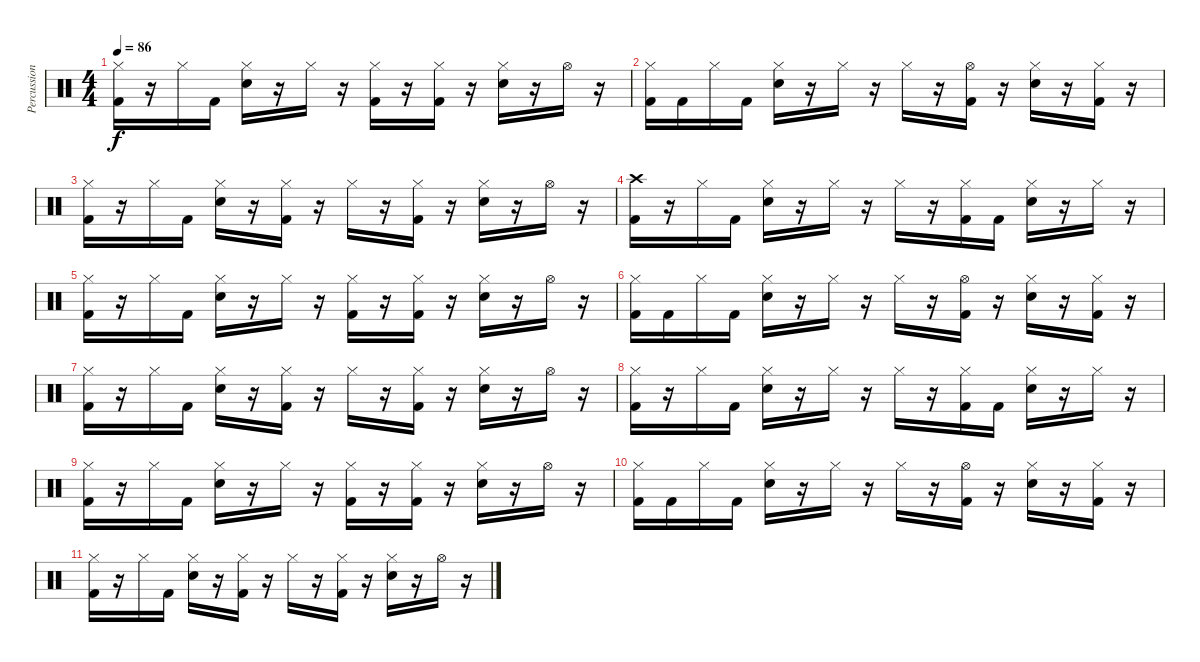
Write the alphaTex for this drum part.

\track ("Percussions" "Percussion") {instrument percussion}
\staff {score}
\articulation defaults
\ts (4 4)
\tempo 86
\clef neutral
\ks c
("Hi-Hat (closed)" "Kick (hit) 2").16{dy f} r.16 "Hi-Hat (closed)".16 "Kick (hit) 2".16 ("Hi-Hat (closed)" "Snare (hit) 2").16 r.16 "Hi-Hat (closed)".16 r.16 ("Hi-Hat (closed)" "Kick (hit) 2").16 r.16 ("Hi-Hat (closed)" "Kick (hit) 2").16 r.16 ("Hi-Hat (closed)" "Snare (hit) 2").16 r.16 "Hi-Hat (open)".16 r.16 |
("Hi-Hat (closed)" "Kick (hit) 2").16 "Kick (hit) 2".16 "Hi-Hat (closed)".16 "Kick (hit) 2".16 ("Hi-Hat (closed)" "Snare (hit) 2").16 r.16 "Hi-Hat (closed)".16 r.16 "Hi-Hat (closed)".16 r.16 ("Hi-Hat (open)" "Kick (hit) 2").16 r.16 ("Hi-Hat (closed)" "Snare (hit) 2").16 r.16 ("Hi-Hat (closed)" "Kick (hit) 2").16 r.16 |
("Hi-Hat (closed)" "Kick (hit) 2").16 r.16 "Hi-Hat (closed)".16 "Kick (hit) 2".16 ("Hi-Hat (closed)" "Snare (hit) 2").16 r.16 ("Hi-Hat (closed)" "Kick (hit) 2").16 r.16 "Hi-Hat (closed)".16 r.16 ("Hi-Hat (closed)" "Kick (hit) 2").16 r.16 ("Hi-Hat (closed)" "Snare (hit) 2").16 r.16 "Hi-Hat (open)".16 r.16 |
("Crash high (hit)" "Kick (hit) 2").16 r.16 "Hi-Hat (closed)".16 "Kick (hit) 2".16 ("Hi-Hat (closed)" "Snare (hit) 2").16 r.16 "Hi-Hat (closed)".16 r.16 "Hi-Hat (closed)".16 r.16 ("Hi-Hat (closed)" "Kick (hit) 2").16 "Kick (hit) 2".16 ("Hi-Hat (closed)" "Snare (hit) 2").16 r.16 "Hi-Hat (closed)".16 r.16 |
("Hi-Hat (closed)" "Kick (hit) 2").16 r.16 "Hi-Hat (closed)".16 "Kick (hit) 2".16 ("Hi-Hat (closed)" "Snare (hit) 2").16 r.16 "Hi-Hat (closed)".16 r.16 ("Hi-Hat (closed)" "Kick (hit) 2").16 r.16 ("Hi-Hat (closed)" "Kick (hit) 2").16 r.16 ("Hi-Hat (closed)" "Snare (hit) 2").16 r.16 "Hi-Hat (open)".16 r.16 |
("Hi-Hat (closed)" "Kick (hit) 2").16 "Kick (hit) 2".16 "Hi-Hat (closed)".16 "Kick (hit) 2".16 ("Hi-Hat (closed)" "Snare (hit) 2").16 r.16 "Hi-Hat (closed)".16 r.16 "Hi-Hat (closed)".16 r.16 ("Hi-Hat (open)" "Kick (hit) 2").16 r.16 ("Hi-Hat (closed)" "Snare (hit) 2").16 r.16 ("Hi-Hat (closed)" "Kick (hit) 2").16 r.16 |
("Hi-Hat (closed)" "Kick (hit) 2").16 r.16 "Hi-Hat (closed)".16 "Kick (hit) 2".16 ("Hi-Hat (closed)" "Snare (hit) 2").16 r.16 ("Hi-Hat (closed)" "Kick (hit) 2").16 r.16 "Hi-Hat (closed)".16 r.16 ("Hi-Hat (closed)" "Kick (hit) 2").16 r.16 ("Hi-Hat (closed)" "Snare (hit) 2").16 r.16 "Hi-Hat (open)".16 r.16 |
("Hi-Hat (closed)" "Kick (hit) 2").16 r.16 "Hi-Hat (closed)".16 "Kick (hit) 2".16 ("Hi-Hat (closed)" "Snare (hit) 2").16 r.16 "Hi-Hat (closed)".16 r.16 "Hi-Hat (closed)".16 r.16 ("Hi-Hat (closed)" "Kick (hit) 2").16 "Kick (hit) 2".16 ("Hi-Hat (closed)" "Snare (hit) 2").16 r.16 "Hi-Hat (closed)".16 r.16 |
("Hi-Hat (closed)" "Kick (hit) 2").16 r.16 "Hi-Hat (closed)".16 "Kick (hit) 2".16 ("Hi-Hat (closed)" "Snare (hit) 2").16 r.16 "Hi-Hat (closed)".16 r.16 ("Hi-Hat (closed)" "Kick (hit) 2").16 r.16 ("Hi-Hat (closed)" "Kick (hit) 2").16 r.16 ("Hi-Hat (closed)" "Snare (hit) 2").16 r.16 "Hi-Hat (open)".16 r.16 |
("Hi-Hat (closed)" "Kick (hit) 2").16 "Kick (hit) 2".16 "Hi-Hat (closed)".16 "Kick (hit) 2".16 ("Hi-Hat (closed)" "Snare (hit) 2").16 r.16 "Hi-Hat (closed)".16 r.16 "Hi-Hat (closed)".16 r.16 ("Hi-Hat (open)" "Kick (hit) 2").16 r.16 ("Hi-Hat (closed)" "Snare (hit) 2").16 r.16 ("Hi-Hat (closed)" "Kick (hit) 2").16 r.16 |
("Hi-Hat (closed)" "Kick (hit) 2").16 r.16 "Hi-Hat (closed)".16 "Kick (hit) 2".16 ("Hi-Hat (closed)" "Snare (hit) 2").16 r.16 ("Hi-Hat (closed)" "Kick (hit) 2").16 r.16 "Hi-Hat (closed)".16 r.16 ("Hi-Hat (closed)" "Kick (hit) 2").16 r.16 ("Hi-Hat (closed)" "Snare (hit) 2").16 r.16 "Hi-Hat (open)".16 r.16
